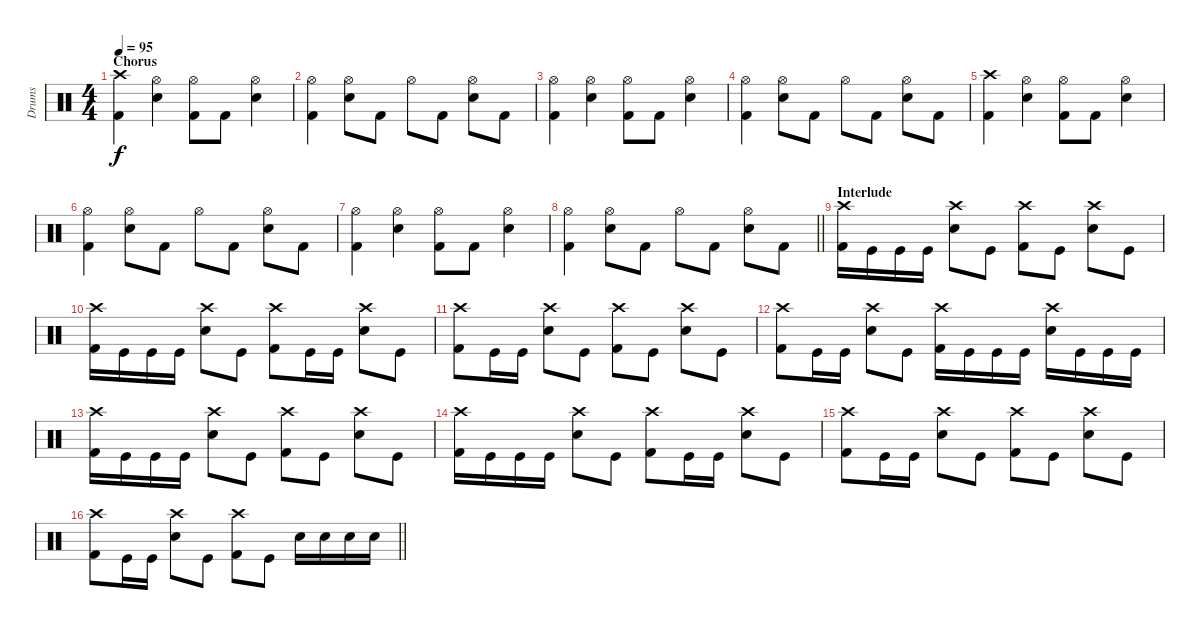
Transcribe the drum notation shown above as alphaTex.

\track ("Drums" "Drums") {instrument percussion}
\staff {score}
\articulation defaults
\ts (4 4)
\section ("" "Chorus ")
\tempo 95
\clef neutral
\ks c
("Crash high (hit)" "Kick (hit) 2").4{dy f} ("Hi-Hat (open)" "Electric Snare (hit)").4 ("Hi-Hat (open)" "Kick (hit) 2").8 "Kick (hit) 2".8 ("Hi-Hat (open)" "Electric Snare (hit)").4 |
("Hi-Hat (open)" "Kick (hit) 2").4 ("Hi-Hat (open)" "Electric Snare (hit)").8 "Kick (hit) 2".8 "Hi-Hat (open)".8 "Kick (hit) 2".8 ("Hi-Hat (open)" "Electric Snare (hit)").8 "Kick (hit) 2".8 |
("Hi-Hat (open)" "Kick (hit) 2").4 ("Hi-Hat (open)" "Electric Snare (hit)").4 ("Hi-Hat (open)" "Kick (hit) 2").8 "Kick (hit) 2".8 ("Hi-Hat (open)" "Electric Snare (hit)").4 |
("Hi-Hat (open)" "Kick (hit) 2").4 ("Hi-Hat (open)" "Electric Snare (hit)").8 "Kick (hit) 2".8 "Hi-Hat (open)".8 "Kick (hit) 2".8 ("Hi-Hat (open)" "Electric Snare (hit)").8 "Kick (hit) 2".8 |
("Crash high (hit)" "Kick (hit) 2").4 ("Hi-Hat (open)" "Electric Snare (hit)").4 ("Hi-Hat (open)" "Kick (hit) 2").8 "Kick (hit) 2".8 ("Hi-Hat (open)" "Electric Snare (hit)").4 |
("Hi-Hat (open)" "Kick (hit) 2").4 ("Hi-Hat (open)" "Electric Snare (hit)").8 "Kick (hit) 2".8 "Hi-Hat (open)".8 "Kick (hit) 2".8 ("Hi-Hat (open)" "Electric Snare (hit)").8 "Kick (hit) 2".8 |
("Hi-Hat (open)" "Kick (hit) 2").4 ("Hi-Hat (open)" "Electric Snare (hit)").4 ("Hi-Hat (open)" "Kick (hit) 2").8 "Kick (hit) 2".8 ("Hi-Hat (open)" "Electric Snare (hit)").4 |
\barLineRight lightlight
("Hi-Hat (open)" "Kick (hit) 2").4 ("Hi-Hat (open)" "Electric Snare (hit)").8 "Kick (hit) 2".8 "Hi-Hat (open)".8 "Kick (hit) 2".8 ("Hi-Hat (open)" "Electric Snare (hit)").8 "Kick (hit) 2".8 |
\section ("" "Interlude ")
("Crash high (hit)" "Kick (hit) 2").16 "Kick (hit)".16 "Kick (hit)".16 "Kick (hit)".16 ("Crash high (hit)" "Electric Snare (hit)").8 "Kick (hit)".8 ("Crash high (hit)" "Kick (hit) 2").8 "Kick (hit)".8 ("Crash high (hit)" "Electric Snare (hit)").8 "Kick (hit)".8 |
("Crash high (hit)" "Kick (hit) 2").16 "Kick (hit)".16 "Kick (hit)".16 "Kick (hit)".16 ("Crash high (hit)" "Electric Snare (hit)").8 "Kick (hit)".8 ("Crash high (hit)" "Kick (hit) 2").8 "Kick (hit)".16 "Kick (hit)".16 ("Crash high (hit)" "Electric Snare (hit)").8 "Kick (hit)".8 |
("Crash high (hit)" "Kick (hit) 2").8 "Kick (hit)".16 "Kick (hit)".16 ("Crash high (hit)" "Electric Snare (hit)").8 "Kick (hit)".8 ("Crash high (hit)" "Kick (hit) 2").8 "Kick (hit)".8 ("Crash high (hit)" "Electric Snare (hit)").8 "Kick (hit)".8 |
("Crash high (hit)" "Kick (hit) 2").8 "Kick (hit)".16 "Kick (hit)".16 ("Crash high (hit)" "Electric Snare (hit)").8 "Kick (hit)".8 ("Crash high (hit)" "Kick (hit) 2").16 "Kick (hit)".16 "Kick (hit)".16 "Kick (hit)".16 ("Crash high (hit)" "Electric Snare (hit)").16 "Kick (hit)".16 "Kick (hit)".16 "Kick (hit)".16 |
("Crash high (hit)" "Kick (hit) 2").16 "Kick (hit)".16 "Kick (hit)".16 "Kick (hit)".16 ("Crash high (hit)" "Electric Snare (hit)").8 "Kick (hit)".8 ("Crash high (hit)" "Kick (hit) 2").8 "Kick (hit)".8 ("Crash high (hit)" "Electric Snare (hit)").8 "Kick (hit)".8 |
("Crash high (hit)" "Kick (hit) 2").16 "Kick (hit)".16 "Kick (hit)".16 "Kick (hit)".16 ("Crash high (hit)" "Electric Snare (hit)").8 "Kick (hit)".8 ("Crash high (hit)" "Kick (hit) 2").8 "Kick (hit)".16 "Kick (hit)".16 ("Crash high (hit)" "Electric Snare (hit)").8 "Kick (hit)".8 |
("Crash high (hit)" "Kick (hit) 2").8 "Kick (hit)".16 "Kick (hit)".16 ("Crash high (hit)" "Electric Snare (hit)").8 "Kick (hit)".8 ("Crash high (hit)" "Kick (hit) 2").8 "Kick (hit)".8 ("Crash high (hit)" "Electric Snare (hit)").8 "Kick (hit)".8 |
\barLineRight lightlight
("Crash high (hit)" "Kick (hit) 2").8 "Kick (hit)".16 "Kick (hit)".16 ("Crash high (hit)" "Electric Snare (hit)").8 "Kick (hit)".8 ("Crash high (hit)" "Kick (hit) 2").8 "Kick (hit)".8 "Electric Snare (hit)".16 "Electric Snare (hit)".16 "Electric Snare (hit)".16 "Electric Snare (hit)".16
